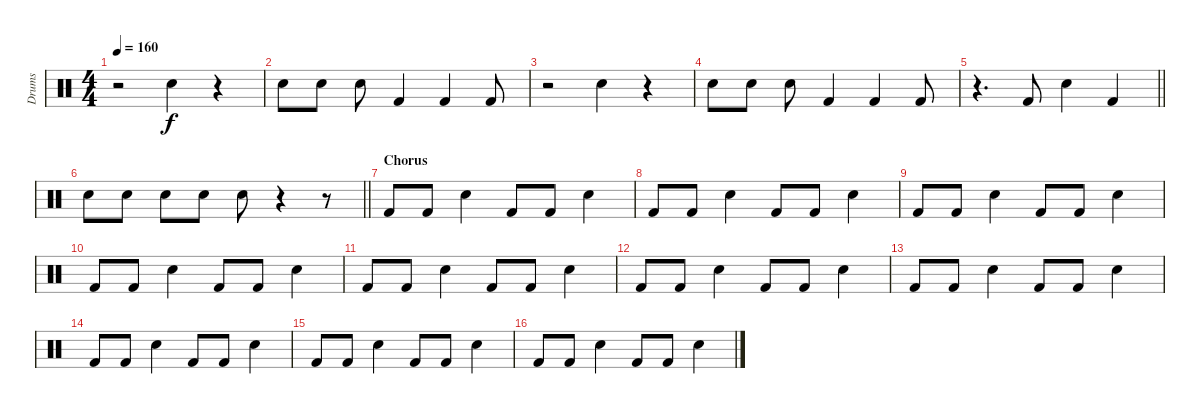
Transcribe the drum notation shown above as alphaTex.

\track ("Drums" "Drums") {instrument percussion}
\staff {score}
\articulation defaults
\ts (4 4)
\tempo 160
\clef neutral
\ks c
r.2{dy f} "Electric Snare (hit)".4 r.4 |
"Electric Snare (hit)".8 "Electric Snare (hit)".8 "Electric Snare (hit)".8 "Kick (hit) 2".4 "Kick (hit) 2".4 "Kick (hit) 2".8 |
r.2 "Electric Snare (hit)".4 r.4 |
"Electric Snare (hit)".8 "Electric Snare (hit)".8 "Electric Snare (hit)".8 "Kick (hit) 2".4 "Kick (hit) 2".4 "Kick (hit) 2".8 |
\barLineRight lightlight
r.4{d} "Kick (hit) 2".8 "Electric Snare (hit)".4 "Kick (hit) 2".4 |
\barLineRight lightlight "Electric Snare (hit)".8 "Electric Snare (hit)".8 "Electric Snare (hit)".8 "Electric Snare (hit)".8 "Electric Snare (hit)".8
r.4 r.8 |
\section ("" "Chorus")
"Kick (hit) 2".8 "Kick (hit) 2".8 "Electric Snare (hit)".4 "Kick (hit) 2".8 "Kick (hit) 2".8 "Electric Snare (hit)".4 |
"Kick (hit) 2".8 "Kick (hit) 2".8 "Electric Snare (hit)".4 "Kick (hit) 2".8 "Kick (hit) 2".8 "Electric Snare (hit)".4 |
"Kick (hit) 2".8 "Kick (hit) 2".8 "Electric Snare (hit)".4 "Kick (hit) 2".8 "Kick (hit) 2".8 "Electric Snare (hit)".4 |
"Kick (hit) 2".8 "Kick (hit) 2".8 "Electric Snare (hit)".4 "Kick (hit) 2".8 "Kick (hit) 2".8 "Electric Snare (hit)".4 |
"Kick (hit) 2".8 "Kick (hit) 2".8 "Electric Snare (hit)".4 "Kick (hit) 2".8 "Kick (hit) 2".8 "Electric Snare (hit)".4 |
"Kick (hit) 2".8 "Kick (hit) 2".8 "Electric Snare (hit)".4 "Kick (hit) 2".8 "Kick (hit) 2".8 "Electric Snare (hit)".4 |
"Kick (hit) 2".8 "Kick (hit) 2".8 "Electric Snare (hit)".4 "Kick (hit) 2".8 "Kick (hit) 2".8 "Electric Snare (hit)".4 |
"Kick (hit) 2".8 "Kick (hit) 2".8 "Electric Snare (hit)".4 "Kick (hit) 2".8 "Kick (hit) 2".8 "Electric Snare (hit)".4 |
"Kick (hit) 2".8 "Kick (hit) 2".8 "Electric Snare (hit)".4 "Kick (hit) 2".8 "Kick (hit) 2".8 "Electric Snare (hit)".4 |
"Kick (hit) 2".8 "Kick (hit) 2".8 "Electric Snare (hit)".4 "Kick (hit) 2".8 "Kick (hit) 2".8 "Electric Snare (hit)".4
